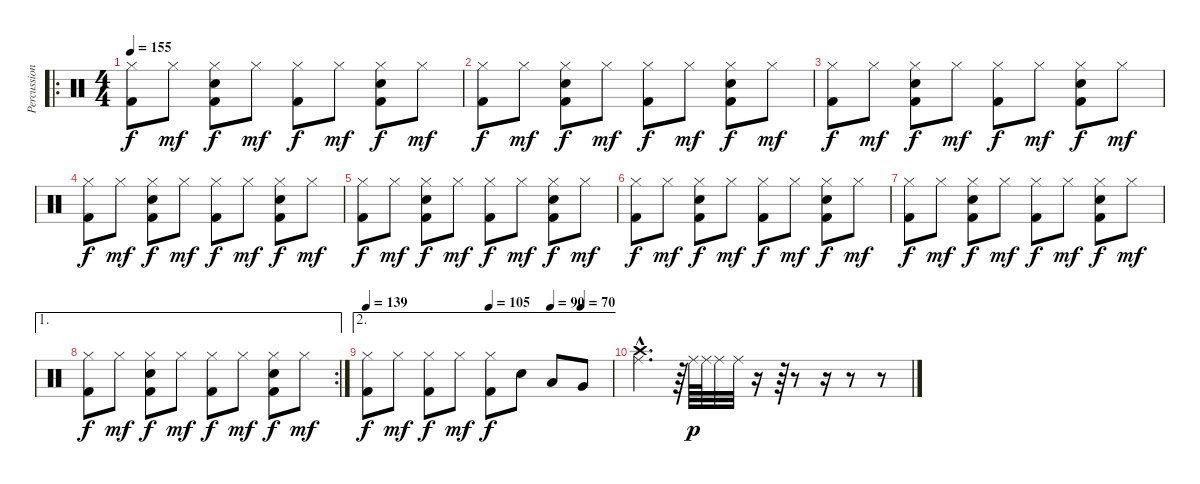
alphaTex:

\track ("Percussion" "Percussion") {instrument percussion}
\staff {score}
\articulation defaults
\ro
\ts (4 4)
\tempo 155
\clef neutral
\ks c
("Hi-Hat (closed)" "Kick (hit) 2").8{dy f} "Hi-Hat (closed)".8{dy mf} ("Hi-Hat (closed)" "Snare (hit) 2" "Kick (hit) 2").8{dy f} "Hi-Hat (closed)".8{dy mf} ("Hi-Hat (closed)" "Kick (hit) 2").8{dy f} "Hi-Hat (closed)".8{dy mf} ("Hi-Hat (closed)" "Snare (hit) 2" "Kick (hit) 2").8{dy f} "Hi-Hat (closed)".8{dy mf} |
("Hi-Hat (closed)" "Kick (hit) 2").8{dy f} "Hi-Hat (closed)".8{dy mf} ("Hi-Hat (closed)" "Snare (hit) 2" "Kick (hit) 2").8{dy f} "Hi-Hat (closed)".8{dy mf} ("Hi-Hat (closed)" "Kick (hit) 2").8{dy f} "Hi-Hat (closed)".8{dy mf} ("Hi-Hat (closed)" "Snare (hit) 2" "Kick (hit) 2").8{dy f} "Hi-Hat (closed)".8{dy mf} |
("Hi-Hat (closed)" "Kick (hit) 2").8{dy f} "Hi-Hat (closed)".8{dy mf} ("Hi-Hat (closed)" "Snare (hit) 2" "Kick (hit) 2").8{dy f} "Hi-Hat (closed)".8{dy mf} ("Hi-Hat (closed)" "Kick (hit) 2").8{dy f} "Hi-Hat (closed)".8{dy mf} ("Hi-Hat (closed)" "Snare (hit) 2" "Kick (hit) 2").8{dy f} "Hi-Hat (closed)".8{dy mf} |
("Hi-Hat (closed)" "Kick (hit) 2").8{dy f} "Hi-Hat (closed)".8{dy mf} ("Hi-Hat (closed)" "Snare (hit) 2" "Kick (hit) 2").8{dy f} "Hi-Hat (closed)".8{dy mf} ("Hi-Hat (closed)" "Kick (hit) 2").8{dy f} "Hi-Hat (closed)".8{dy mf} ("Hi-Hat (closed)" "Snare (hit) 2" "Kick (hit) 2").8{dy f} "Hi-Hat (closed)".8{dy mf} |
("Hi-Hat (closed)" "Kick (hit) 2").8{dy f} "Hi-Hat (closed)".8{dy mf} ("Hi-Hat (closed)" "Snare (hit) 2" "Kick (hit) 2").8{dy f} "Hi-Hat (closed)".8{dy mf} ("Hi-Hat (closed)" "Kick (hit) 2").8{dy f} "Hi-Hat (closed)".8{dy mf} ("Hi-Hat (closed)" "Snare (hit) 2" "Kick (hit) 2").8{dy f} "Hi-Hat (closed)".8{dy mf} |
("Hi-Hat (closed)" "Kick (hit) 2").8{dy f} "Hi-Hat (closed)".8{dy mf} ("Hi-Hat (closed)" "Snare (hit) 2" "Kick (hit) 2").8{dy f} "Hi-Hat (closed)".8{dy mf} ("Hi-Hat (closed)" "Kick (hit) 2").8{dy f} "Hi-Hat (closed)".8{dy mf} ("Hi-Hat (closed)" "Snare (hit) 2" "Kick (hit) 2").8{dy f} "Hi-Hat (closed)".8{dy mf} |
("Hi-Hat (closed)" "Kick (hit) 2").8{dy f} "Hi-Hat (closed)".8{dy mf} ("Hi-Hat (closed)" "Snare (hit) 2" "Kick (hit) 2").8{dy f} "Hi-Hat (closed)".8{dy mf} ("Hi-Hat (closed)" "Kick (hit) 2").8{dy f} "Hi-Hat (closed)".8{dy mf} ("Hi-Hat (closed)" "Snare (hit) 2" "Kick (hit) 2").8{dy f} "Hi-Hat (closed)".8{dy mf} |
\ae 1
\rc 2
("Hi-Hat (closed)" "Kick (hit) 2").8{dy f} "Hi-Hat (closed)".8{dy mf} ("Hi-Hat (closed)" "Snare (hit) 2" "Kick (hit) 2").8{dy f} "Hi-Hat (closed)".8{dy mf} ("Hi-Hat (closed)" "Kick (hit) 2").8{dy f} "Hi-Hat (closed)".8{dy mf} ("Hi-Hat (closed)" "Snare (hit) 2" "Kick (hit) 2").8{dy f} "Hi-Hat (closed)".8{dy mf} |
\ae 2
\tempo (90 0.75)
\tempo (70 0.875)
\tempo (105 0.5)
\tempo 139
("Hi-Hat (closed)" "Kick (hit) 2").8{dy f} "Hi-Hat (closed)".8{dy mf} ("Hi-Hat (closed)" "Kick (hit) 2").8{dy f} "Hi-Hat (closed)".8{dy mf} ("Hi-Hat (closed)" "Kick (hit) 2").8{dy f} "Snare (hit) 2".8 "Low Tom (hit)".8 "Very Low Tom (hit)".8 |
("Ride (middle)"{hac} "Crash high (hit)"{hac}).4{d} r.64 "Ride (middle)".64{dy p} "Ride (middle)".64 "Ride (middle)".32 "Ride (middle)".32 r.16 r.64 r.8 r.16 r.8 r.8
